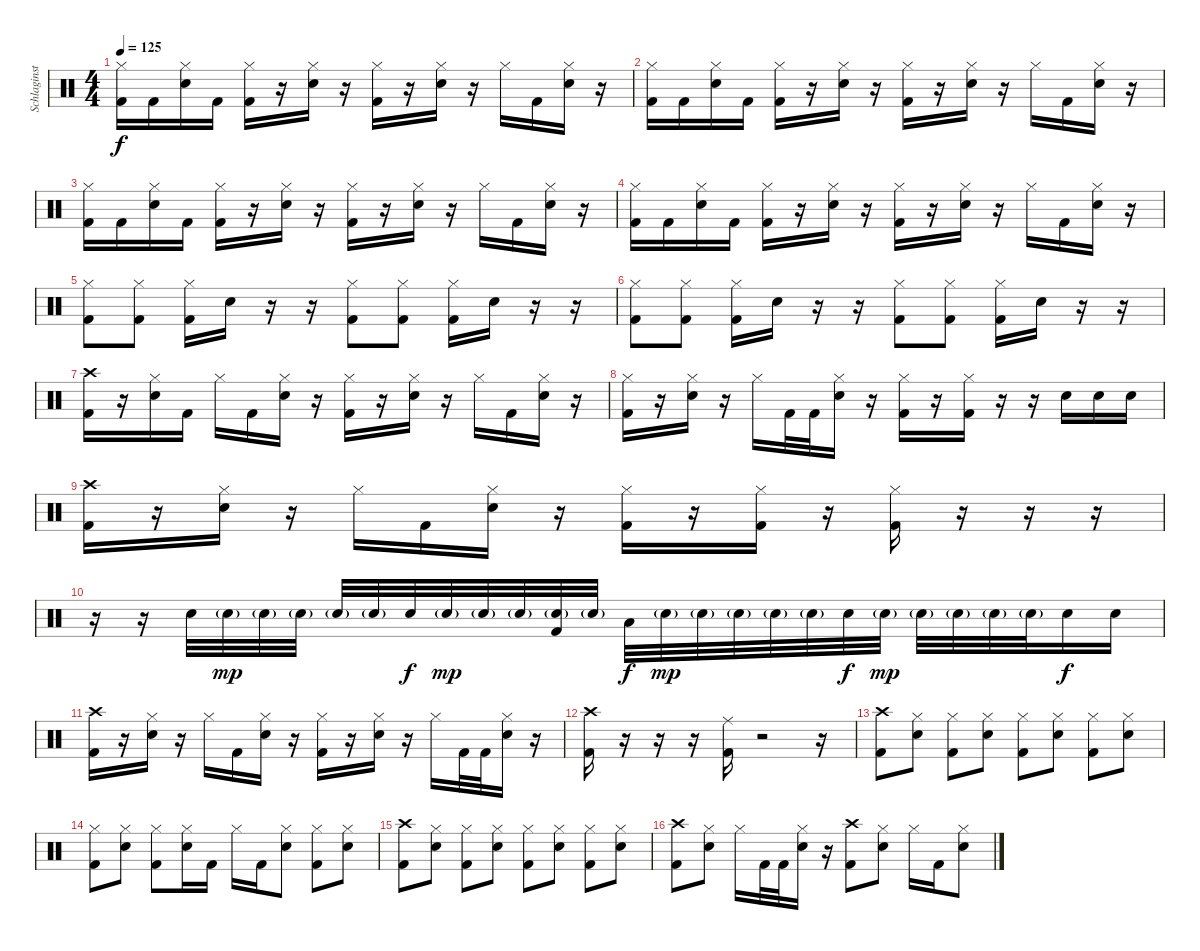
\track ("Schlaginstrumente - Auswahl" "Schlaginst") {instrument percussion}
\staff {score}
\articulation defaults
\ts (4 4)
\tempo 125
\clef neutral
\ks c
("Hi-Hat (closed)" "Kick (hit) 2").16{dy f} "Kick (hit) 2".16 ("Hi-Hat (closed)" "Electric Snare (hit)").16 "Kick (hit) 2".16 ("Hi-Hat (closed)" "Kick (hit) 2").16 r.16 ("Hi-Hat (closed)" "Electric Snare (hit)").16 r.16 ("Hi-Hat (closed)" "Kick (hit) 2").16 r.16 ("Hi-Hat (closed)" "Electric Snare (hit)").16 r.16 "Hi-Hat (closed)".16 "Kick (hit) 2".16 ("Hi-Hat (closed)" "Electric Snare (hit)").16 r.16 |
("Hi-Hat (closed)" "Kick (hit) 2").16 "Kick (hit) 2".16 ("Hi-Hat (closed)" "Electric Snare (hit)").16 "Kick (hit) 2".16 ("Hi-Hat (closed)" "Kick (hit) 2").16 r.16 ("Hi-Hat (closed)" "Electric Snare (hit)").16 r.16 ("Hi-Hat (closed)" "Kick (hit) 2").16 r.16 ("Hi-Hat (closed)" "Electric Snare (hit)").16 r.16 "Hi-Hat (closed)".16 "Kick (hit) 2".16 ("Hi-Hat (closed)" "Electric Snare (hit)").16 r.16 |
("Hi-Hat (closed)" "Kick (hit) 2").16 "Kick (hit) 2".16 ("Hi-Hat (closed)" "Electric Snare (hit)").16 "Kick (hit) 2".16 ("Hi-Hat (closed)" "Kick (hit) 2").16 r.16 ("Hi-Hat (closed)" "Electric Snare (hit)").16 r.16 ("Hi-Hat (closed)" "Kick (hit) 2").16 r.16 ("Hi-Hat (closed)" "Electric Snare (hit)").16 r.16 "Hi-Hat (closed)".16 "Kick (hit) 2".16 ("Hi-Hat (closed)" "Electric Snare (hit)").16 r.16 |
("Hi-Hat (closed)" "Kick (hit) 2").16 "Kick (hit) 2".16 ("Hi-Hat (closed)" "Electric Snare (hit)").16 "Kick (hit) 2".16 ("Hi-Hat (closed)" "Kick (hit) 2").16 r.16 ("Hi-Hat (closed)" "Electric Snare (hit)").16 r.16 ("Hi-Hat (closed)" "Kick (hit) 2").16 r.16 ("Hi-Hat (closed)" "Electric Snare (hit)").16 r.16 "Hi-Hat (closed)".16 "Kick (hit) 2".16 ("Hi-Hat (closed)" "Electric Snare (hit)").16 r.16 |
("Hi-Hat (closed)" "Kick (hit) 2").8 ("Hi-Hat (closed)" "Kick (hit) 2").8 ("Hi-Hat (closed)" "Kick (hit) 2").16 "Electric Snare (hit)".16 r.16 r.16 ("Hi-Hat (closed)" "Kick (hit) 2").8 ("Hi-Hat (closed)" "Kick (hit) 2").8 ("Hi-Hat (closed)" "Kick (hit) 2").16 "Electric Snare (hit)".16 r.16 r.16 |
("Hi-Hat (closed)" "Kick (hit) 2").8 ("Hi-Hat (closed)" "Kick (hit) 2").8 ("Hi-Hat (closed)" "Kick (hit) 2").16 "Electric Snare (hit)".16 r.16 r.16 ("Hi-Hat (closed)" "Kick (hit) 2").8 ("Hi-Hat (closed)" "Kick (hit) 2").8 ("Hi-Hat (closed)" "Kick (hit) 2").16 "Electric Snare (hit)".16 r.16 r.16 |
("Crash high (hit)" "Kick (hit) 2").16 r.16 ("Hi-Hat (closed)" "Electric Snare (hit)").16 "Kick (hit) 2".16 "Hi-Hat (closed)".16 "Kick (hit) 2".16 ("Hi-Hat (closed)" "Electric Snare (hit)").16 r.16 ("Hi-Hat (closed)" "Kick (hit) 2").16 r.16 ("Hi-Hat (closed)" "Electric Snare (hit)").16 r.16 "Hi-Hat (closed)".16 "Kick (hit) 2".16 ("Hi-Hat (closed)" "Electric Snare (hit)").16 r.16 |
("Hi-Hat (closed)" "Kick (hit) 2").16 r.16 ("Hi-Hat (closed)" "Electric Snare (hit)").16 r.16 "Hi-Hat (closed)".16 "Kick (hit) 2".32 "Kick (hit) 2".32 ("Hi-Hat (closed)" "Electric Snare (hit)").16 r.16 ("Hi-Hat (closed)" "Kick (hit) 2").16 r.16 ("Hi-Hat (closed)" "Kick (hit) 2").16 r.16 r.16 "Electric Snare (hit)".16 "Electric Snare (hit)".16 "Electric Snare (hit)".16 |
("Crash high (hit)" "Kick (hit) 2").16 r.16 ("Hi-Hat (closed)" "Electric Snare (hit)").16 r.16 "Hi-Hat (closed)".16 "Kick (hit) 2".16 ("Hi-Hat (closed)" "Electric Snare (hit)").16 r.16 ("Hi-Hat (closed)" "Kick (hit) 2").16 r.16 ("Hi-Hat (closed)" "Kick (hit) 2").16 r.16 ("Hi-Hat (closed)" "Kick (hit) 2").16 r.16 r.16 r.16 |
r.16 r.16 "Electric Snare (hit)".32 "Electric Snare (hit)"{g}.32{dy mp volume 9} "Electric Snare (hit)"{g}.32 "Electric Snare (hit)"{g}.32 "Electric Snare (hit)"{g}.32 "Electric Snare (hit)"{g}.32 "Electric Snare (hit)".32{dy f volume 13} "Electric Snare (hit)"{g}.32{dy mp volume 9} "Electric Snare (hit)"{g}.32 "Electric Snare (hit)"{g}.32 ("Electric Snare (hit)"{g} "Kick (hit) 2").32 "Electric Snare (hit)"{g}.32 "Low Tom (hit)".32{dy f volume 13} "Electric Snare (hit)"{g}.32{dy mp volume 9} "Electric Snare (hit)"{g}.32 "Electric Snare (hit)"{g}.32 "Electric Snare (hit)"{g}.32 "Electric Snare (hit)"{g}.32 "Electric Snare (hit)".32{dy f volume 13} "Electric Snare (hit)"{g}.32{dy mp volume 9} "Electric Snare (hit)"{g}.32 "Electric Snare (hit)"{g}.32 "Electric Snare (hit)"{g}.32 "Electric Snare (hit)"{g}.32 "Electric Snare (hit)".16{dy f volume 13} "Electric Snare (hit)".16 |
("Crash high (hit)" "Kick (hit) 2").16 r.16 ("Hi-Hat (closed)" "Electric Snare (hit)").16 r.16 "Hi-Hat (closed)".16 "Kick (hit) 2".16 ("Hi-Hat (closed)" "Electric Snare (hit)").16 r.16 ("Hi-Hat (closed)" "Kick (hit) 2").16 r.16 ("Hi-Hat (closed)" "Electric Snare (hit)").16 r.16 "Hi-Hat (closed)".16 "Kick (hit) 2".32 "Kick (hit) 2".32 ("Hi-Hat (closed)" "Electric Snare (hit)").16 r.16 |
("Crash high (hit)" "Kick (hit) 2").16 r.16{volume 0} r.16 r.16 ("Ride (middle)" "Kick (hit) 2").16{volume 13} r.2{volume 0} r.16{volume 13} |
("Crash high (hit)" "Kick (hit) 2").8 ("Hi-Hat (closed)" "Electric Snare (hit)").8 ("Hi-Hat (closed)" "Kick (hit) 2").8 ("Hi-Hat (closed)" "Electric Snare (hit)").8 ("Hi-Hat (closed)" "Kick (hit) 2").8 ("Hi-Hat (closed)" "Electric Snare (hit)").8 ("Hi-Hat (closed)" "Kick (hit) 2").8 ("Hi-Hat (closed)" "Electric Snare (hit)").8 |
("Hi-Hat (closed)" "Kick (hit) 2").8 ("Hi-Hat (closed)" "Electric Snare (hit)").8 ("Hi-Hat (closed)" "Kick (hit) 2").8 ("Hi-Hat (closed)" "Electric Snare (hit)").16 "Kick (hit) 2".16 "Hi-Hat (closed)".16 "Kick (hit) 2".16 ("Hi-Hat (closed)" "Electric Snare (hit)").8 ("Hi-Hat (closed)" "Kick (hit) 2").8 ("Hi-Hat (closed)" "Electric Snare (hit)").8 |
("Crash high (hit)" "Kick (hit) 2").8 ("Hi-Hat (closed)" "Electric Snare (hit)").8 ("Hi-Hat (closed)" "Kick (hit) 2").8 ("Hi-Hat (closed)" "Electric Snare (hit)").8 ("Hi-Hat (closed)" "Kick (hit) 2").8 ("Hi-Hat (closed)" "Electric Snare (hit)").8 ("Hi-Hat (closed)" "Kick (hit) 2").8 ("Hi-Hat (closed)" "Electric Snare (hit)").8 |
("Crash high (hit)" "Kick (hit) 2").8 ("Hi-Hat (closed)" "Electric Snare (hit)").8 "Hi-Hat (closed)".16 "Kick (hit) 2".32 "Kick (hit) 2".32 ("Hi-Hat (closed)" "Electric Snare (hit)").16 r.16 ("Crash high (hit)" "Kick (hit) 2").8 ("Hi-Hat (closed)" "Electric Snare (hit)").8 "Hi-Hat (closed)".16 "Kick (hit) 2".16 ("Hi-Hat (closed)" "Electric Snare (hit)").8
